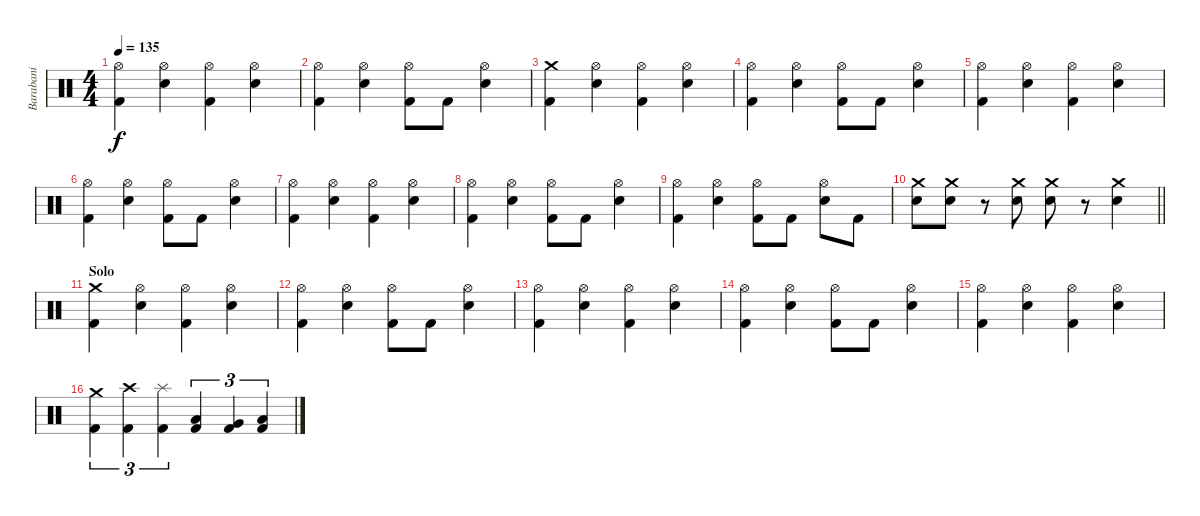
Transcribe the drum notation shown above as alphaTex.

\track ("Barabani" "Barabani") {instrument percussion}
\staff {score}
\articulation defaults
\ts (4 4)
\tempo 135
\clef neutral
\ks c
("Hi-Hat (open)" "Kick (hit) 2").4{dy f} ("Hi-Hat (open)" "Snare (hit) 2").4 ("Hi-Hat (open)" "Kick (hit) 2").4 ("Hi-Hat (open)" "Snare (hit) 2").4 |
("Hi-Hat (open)" "Kick (hit) 2").4 ("Hi-Hat (open)" "Snare (hit) 2").4 ("Hi-Hat (open)" "Kick (hit) 2").8 "Kick (hit) 2".8 ("Hi-Hat (open)" "Snare (hit) 2").4 |
("Crash medium (hit)" "Kick (hit) 2").4 ("Hi-Hat (open)" "Snare (hit) 2").4 ("Hi-Hat (open)" "Kick (hit) 2").4 ("Hi-Hat (open)" "Snare (hit) 2").4 |
("Hi-Hat (open)" "Kick (hit) 2").4 ("Hi-Hat (open)" "Snare (hit) 2").4 ("Hi-Hat (open)" "Kick (hit) 2").8 "Kick (hit) 2".8 ("Hi-Hat (open)" "Snare (hit) 2").4 |
("Hi-Hat (open)" "Kick (hit) 2").4 ("Hi-Hat (open)" "Snare (hit) 2").4 ("Hi-Hat (open)" "Kick (hit) 2").4 ("Hi-Hat (open)" "Snare (hit) 2").4 |
("Hi-Hat (open)" "Kick (hit) 2").4 ("Hi-Hat (open)" "Snare (hit) 2").4 ("Hi-Hat (open)" "Kick (hit) 2").8 "Kick (hit) 2".8 ("Hi-Hat (open)" "Snare (hit) 2").4 |
("Hi-Hat (open)" "Kick (hit) 2").4 ("Hi-Hat (open)" "Snare (hit) 2").4 ("Hi-Hat (open)" "Kick (hit) 2").4 ("Hi-Hat (open)" "Snare (hit) 2").4 |
("Hi-Hat (open)" "Kick (hit) 2").4 ("Hi-Hat (open)" "Snare (hit) 2").4 ("Hi-Hat (open)" "Kick (hit) 2").8 "Kick (hit) 2".8 ("Hi-Hat (open)" "Snare (hit) 2").4 |
("Hi-Hat (open)" "Kick (hit) 2").4 ("Hi-Hat (open)" "Snare (hit) 2").4 ("Hi-Hat (open)" "Kick (hit) 2").8 "Kick (hit) 2".8 ("Hi-Hat (open)" "Snare (hit) 2").8 "Kick (hit) 2".8 |
\barLineRight lightlight
("Crash medium (hit)" "Snare (hit) 2").8 ("Crash medium (hit)" "Snare (hit) 2").8 r.8 ("Crash medium (hit)" "Snare (hit) 2").8 ("Crash medium (hit)" "Snare (hit) 2").8 r.8 ("Crash medium (hit)" "Snare (hit) 2").4 |
\section ("" "Solo")
("Crash medium (hit)" "Kick (hit) 2").4 ("Hi-Hat (open)" "Snare (hit) 2").4 ("Hi-Hat (open)" "Kick (hit) 2").4 ("Hi-Hat (open)" "Snare (hit) 2").4 |
("Hi-Hat (open)" "Kick (hit) 2").4 ("Hi-Hat (open)" "Snare (hit) 2").4 ("Hi-Hat (open)" "Kick (hit) 2").8 "Kick (hit) 2".8 ("Hi-Hat (open)" "Snare (hit) 2").4 |
("Hi-Hat (open)" "Kick (hit) 2").4 ("Hi-Hat (open)" "Snare (hit) 2").4 ("Hi-Hat (open)" "Kick (hit) 2").4 ("Hi-Hat (open)" "Snare (hit) 2").4 |
("Hi-Hat (open)" "Kick (hit) 2").4 ("Hi-Hat (open)" "Snare (hit) 2").4 ("Hi-Hat (open)" "Kick (hit) 2").8 "Kick (hit) 2".8 ("Hi-Hat (open)" "Snare (hit) 2").4 |
("Hi-Hat (open)" "Kick (hit) 2").4 ("Hi-Hat (open)" "Snare (hit) 2").4 ("Hi-Hat (open)" "Kick (hit) 2").4 ("Hi-Hat (open)" "Snare (hit) 2").4 |
("Crash medium (hit)" "Kick (hit) 2").4{tu (3 2)} ("Crash high (hit)" "Kick (hit) 2").4{tu (3 2)} ("Splash (hit)" "Kick (hit) 2").4{tu (3 2)} ("Low Tom (hit)" "Kick (hit) 2").4{tu (3 2)} ("Very Low Tom (hit)" "Kick (hit) 2").4{tu (3 2)} ("Low Floor Tom (hit)" "Kick (hit) 2").4{tu (3 2)}
